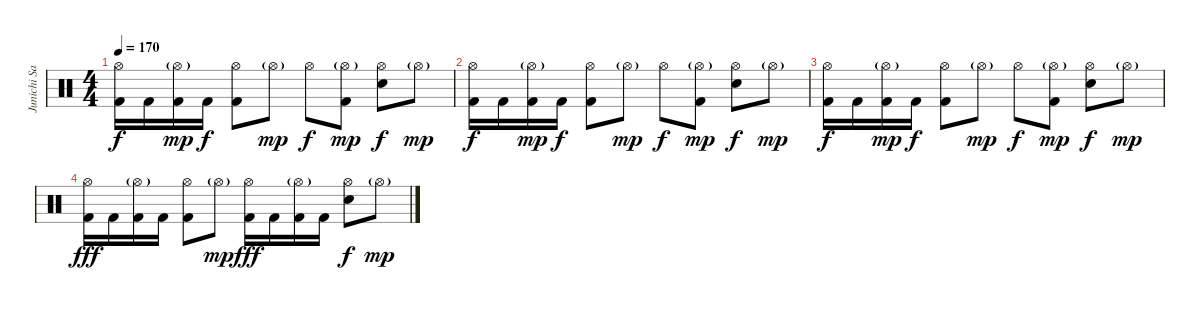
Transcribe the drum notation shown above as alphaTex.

\track ("Junichi Sato" "Junichi Sa") {instrument percussion}
\staff {score}
\articulation defaults
\ts (4 4)
\tempo 170
\clef neutral
\ks c
("Hi-Hat (open)" "Kick (hit) 2").16{dy f} "Kick (hit) 2".16 ("Hi-Hat (open)"{g} "Kick (hit) 2").16{dy mp} "Kick (hit) 2".16{dy f} ("Hi-Hat (open)" "Kick (hit) 2").8 "Hi-Hat (open)"{g}.8{dy mp} "Hi-Hat (open)".8{dy f} ("Hi-Hat (open)"{g} "Kick (hit) 2").8{dy mp} ("Hi-Hat (open)" "Snare (hit) 2").8{dy f} "Hi-Hat (open)"{g}.8{dy mp} |
("Hi-Hat (open)" "Kick (hit) 2").16{dy f} "Kick (hit) 2".16 ("Hi-Hat (open)"{g} "Kick (hit) 2").16{dy mp} "Kick (hit) 2".16{dy f} ("Hi-Hat (open)" "Kick (hit) 2").8 "Hi-Hat (open)"{g}.8{dy mp} "Hi-Hat (open)".8{dy f} ("Hi-Hat (open)"{g} "Kick (hit) 2").8{dy mp} ("Hi-Hat (open)" "Snare (hit) 2").8{dy f} "Hi-Hat (open)"{g}.8{dy mp} |
("Hi-Hat (open)" "Kick (hit) 2").16{dy f} "Kick (hit) 2".16 ("Hi-Hat (open)"{g} "Kick (hit) 2").16{dy mp} "Kick (hit) 2".16{dy f} ("Hi-Hat (open)" "Kick (hit) 2").8 "Hi-Hat (open)"{g}.8{dy mp} "Hi-Hat (open)".8{dy f} ("Hi-Hat (open)"{g} "Kick (hit) 2").8{dy mp} ("Hi-Hat (open)" "Snare (hit) 2").8{dy f} "Hi-Hat (open)"{g}.8{dy mp} |
("Hi-Hat (open)" "Kick (hit) 2").16{dy fff} "Kick (hit) 2".16 ("Hi-Hat (open)"{g} "Kick (hit) 2").16 "Kick (hit) 2".16 ("Hi-Hat (open)" "Kick (hit) 2").8 "Hi-Hat (open)"{g}.8{dy mp} ("Hi-Hat (open)" "Kick (hit) 2").16{dy fff} "Kick (hit) 2".16 ("Hi-Hat (open)"{g} "Kick (hit) 2").16 "Kick (hit) 2".16 ("Hi-Hat (open)" "Snare (hit) 2").8{dy f} "Hi-Hat (open)"{g}.8{dy mp}
